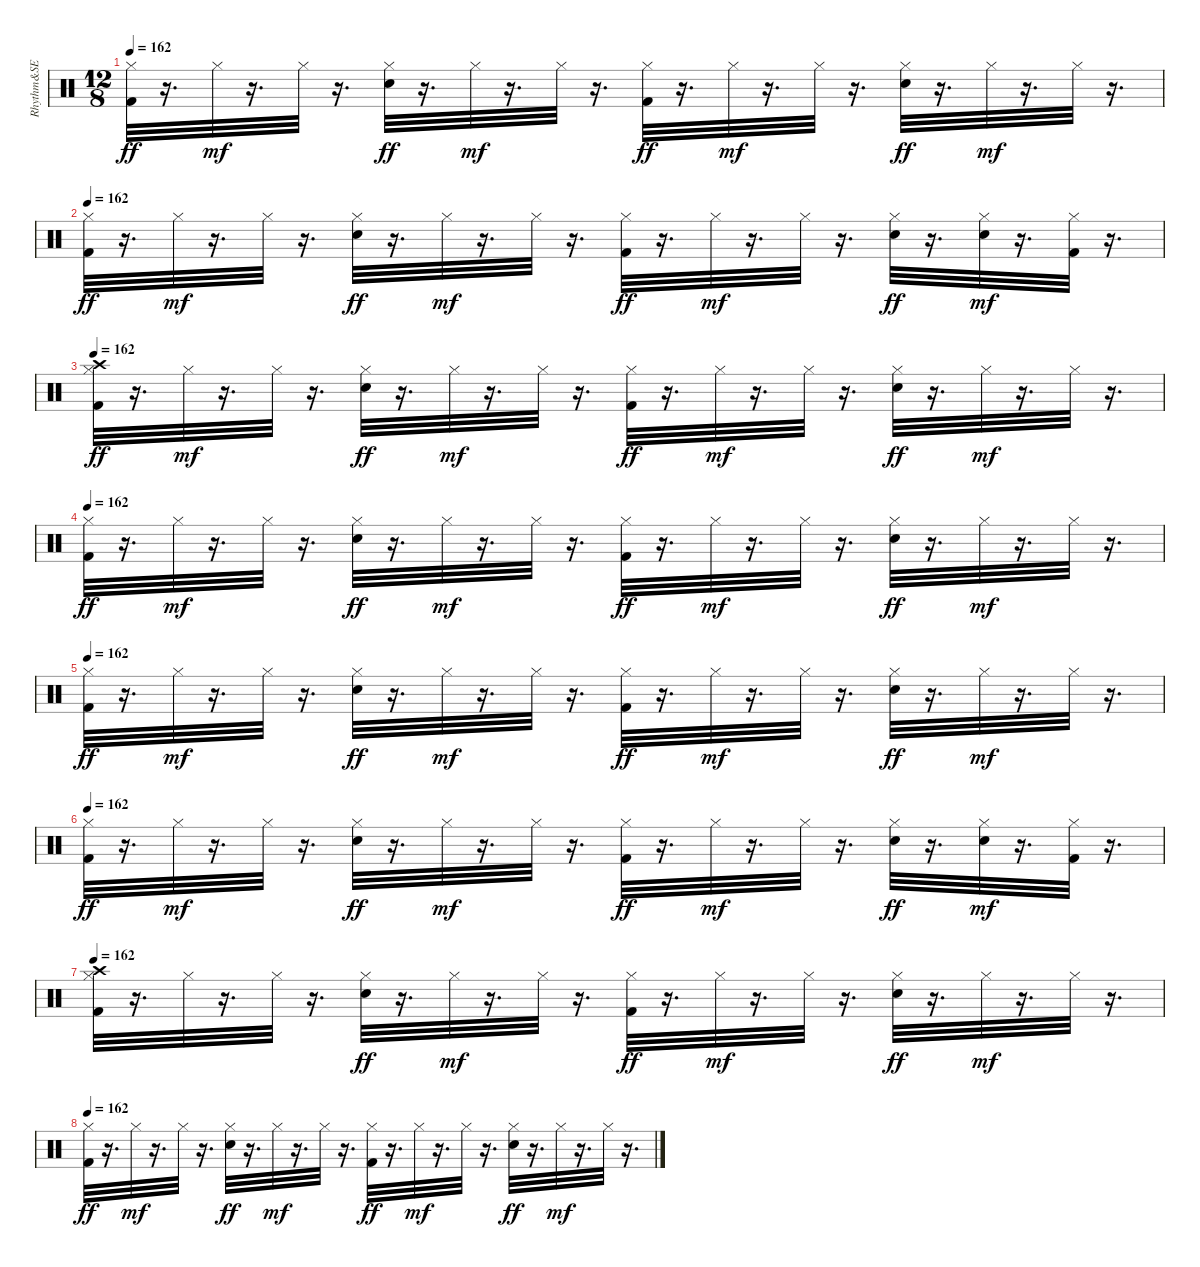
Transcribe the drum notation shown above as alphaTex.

\track ("Rhythm&SE" "Rhythm&SE") {instrument percussion}
\staff {score}
\articulation defaults
\ts (12 8)
\tempo 162
\clef neutral
\ks c
("Kick (hit) 2" "Hi-Hat (closed)").32{dy ff volume 14 balance 8} r.16{d} "Hi-Hat (closed)".32{dy mf} r.16{d} "Hi-Hat (closed)".32{volume 14} r.16{d} ("Snare (hit) 2" "Hi-Hat (closed)").32{dy ff} r.16{d} "Hi-Hat (closed)".32{dy mf} r.16{d} "Hi-Hat (closed)".32 r.16{d} ("Kick (hit) 2" "Hi-Hat (closed)").32{dy ff} r.16{d} "Hi-Hat (closed)".32{dy mf} r.16{d} "Hi-Hat (closed)".32 r.16{d} ("Snare (hit) 2" "Hi-Hat (closed)").32{dy ff} r.16{d} "Hi-Hat (closed)".32{dy mf} r.16{d} "Hi-Hat (closed)".32 r.16{d} |
\tempo 162
("Kick (hit) 2" "Hi-Hat (closed)").32{dy ff volume 14 balance 8} r.16{d} "Hi-Hat (closed)".32{dy mf} r.16{d} "Hi-Hat (closed)".32{volume 14} r.16{d} ("Snare (hit) 2" "Hi-Hat (closed)").32{dy ff} r.16{d} "Hi-Hat (closed)".32{dy mf} r.16{d} "Hi-Hat (closed)".32 r.16{d} ("Kick (hit) 2" "Hi-Hat (closed)").32{dy ff} r.16{d} "Hi-Hat (closed)".32{dy mf} r.16{d} "Hi-Hat (closed)".32 r.16{d} ("Snare (hit) 2" "Hi-Hat (closed)").32{dy ff} r.16{d} ("Snare (hit) 2" "Hi-Hat (closed)").32{dy mf} r.16{d} ("Kick (hit) 2" "Hi-Hat (closed)").32 r.16{d} |
\tempo 162
("Kick (hit) 2" "Hi-Hat (closed)" "Crash high (hit)").32{dy ff volume 14 balance 8} r.16{d} "Hi-Hat (closed)".32{dy mf} r.16{d} "Hi-Hat (closed)".32{volume 14} r.16{d} ("Snare (hit) 2" "Hi-Hat (closed)").32{dy ff} r.16{d} "Hi-Hat (closed)".32{dy mf} r.16{d} "Hi-Hat (closed)".32 r.16{d} ("Kick (hit) 2" "Hi-Hat (closed)").32{dy ff} r.16{d} "Hi-Hat (closed)".32{dy mf} r.16{d} "Hi-Hat (closed)".32 r.16{d} ("Snare (hit) 2" "Hi-Hat (closed)").32{dy ff} r.16{d} "Hi-Hat (closed)".32{dy mf} r.16{d} "Hi-Hat (closed)".32 r.16{d} |
\tempo 162
("Kick (hit) 2" "Hi-Hat (closed)").32{dy ff volume 14 balance 8} r.16{d} "Hi-Hat (closed)".32{dy mf} r.16{d} "Hi-Hat (closed)".32{volume 14} r.16{d} ("Snare (hit) 2" "Hi-Hat (closed)").32{dy ff} r.16{d} "Hi-Hat (closed)".32{dy mf} r.16{d} "Hi-Hat (closed)".32 r.16{d} ("Kick (hit) 2" "Hi-Hat (closed)").32{dy ff} r.16{d} "Hi-Hat (closed)".32{dy mf} r.16{d} "Hi-Hat (closed)".32 r.16{d} ("Snare (hit) 2" "Hi-Hat (closed)").32{dy ff} r.16{d} "Hi-Hat (closed)".32{dy mf} r.16{d} "Hi-Hat (closed)".32 r.16{d} |
\tempo 162
("Kick (hit) 2" "Hi-Hat (closed)").32{dy ff volume 14 balance 8} r.16{d} "Hi-Hat (closed)".32{dy mf} r.16{d} "Hi-Hat (closed)".32{volume 14} r.16{d} ("Snare (hit) 2" "Hi-Hat (closed)").32{dy ff} r.16{d} "Hi-Hat (closed)".32{dy mf} r.16{d} "Hi-Hat (closed)".32 r.16{d} ("Kick (hit) 2" "Hi-Hat (closed)").32{dy ff} r.16{d} "Hi-Hat (closed)".32{dy mf} r.16{d} "Hi-Hat (closed)".32 r.16{d} ("Snare (hit) 2" "Hi-Hat (closed)").32{dy ff} r.16{d} "Hi-Hat (closed)".32{dy mf} r.16{d} "Hi-Hat (closed)".32 r.16{d} |
\tempo 162
("Kick (hit) 2" "Hi-Hat (closed)").32{dy ff volume 14 balance 8} r.16{d} "Hi-Hat (closed)".32{dy mf} r.16{d} "Hi-Hat (closed)".32{volume 14} r.16{d} ("Snare (hit) 2" "Hi-Hat (closed)").32{dy ff} r.16{d} "Hi-Hat (closed)".32{dy mf} r.16{d} "Hi-Hat (closed)".32 r.16{d} ("Kick (hit) 2" "Hi-Hat (closed)").32{dy ff} r.16{d} "Hi-Hat (closed)".32{dy mf} r.16{d} "Hi-Hat (closed)".32 r.16{d} ("Snare (hit) 2" "Hi-Hat (closed)").32{dy ff} r.16{d} ("Snare (hit) 2" "Hi-Hat (closed)").32{dy mf} r.16{d} ("Kick (hit) 2" "Hi-Hat (closed)").32 r.16{d} |
\tempo 162
("Kick (hit) 2" "Hi-Hat (closed)" "Crash high (hit)").32{volume 14 balance 8} r.16{d} "Hi-Hat (closed)".32 r.16{d} "Hi-Hat (closed)".32{volume 14} r.16{d} ("Snare (hit) 2" "Hi-Hat (closed)").32{dy ff} r.16{d} "Hi-Hat (closed)".32{dy mf} r.16{d} "Hi-Hat (closed)".32 r.16{d} ("Kick (hit) 2" "Hi-Hat (closed)").32{dy ff} r.16{d} "Hi-Hat (closed)".32{dy mf} r.16{d} "Hi-Hat (closed)".32 r.16{d} ("Snare (hit) 2" "Hi-Hat (closed)").32{dy ff} r.16{d} "Hi-Hat (closed)".32{dy mf} r.16{d} "Hi-Hat (closed)".32 r.16{d} |
\tempo 162
("Kick (hit) 2" "Hi-Hat (closed)").32{dy ff volume 14 balance 8} r.16{d} "Hi-Hat (closed)".32{dy mf} r.16{d} "Hi-Hat (closed)".32{volume 14} r.16{d} ("Snare (hit) 2" "Hi-Hat (closed)").32{dy ff} r.16{d} "Hi-Hat (closed)".32{dy mf} r.16{d} "Hi-Hat (closed)".32 r.16{d} ("Kick (hit) 2" "Hi-Hat (closed)").32{dy ff} r.16{d} "Hi-Hat (closed)".32{dy mf} r.16{d} "Hi-Hat (closed)".32 r.16{d} ("Snare (hit) 2" "Hi-Hat (closed)").32{dy ff} r.16{d} "Hi-Hat (closed)".32{dy mf} r.16{d} "Hi-Hat (closed)".32 r.16{d}
